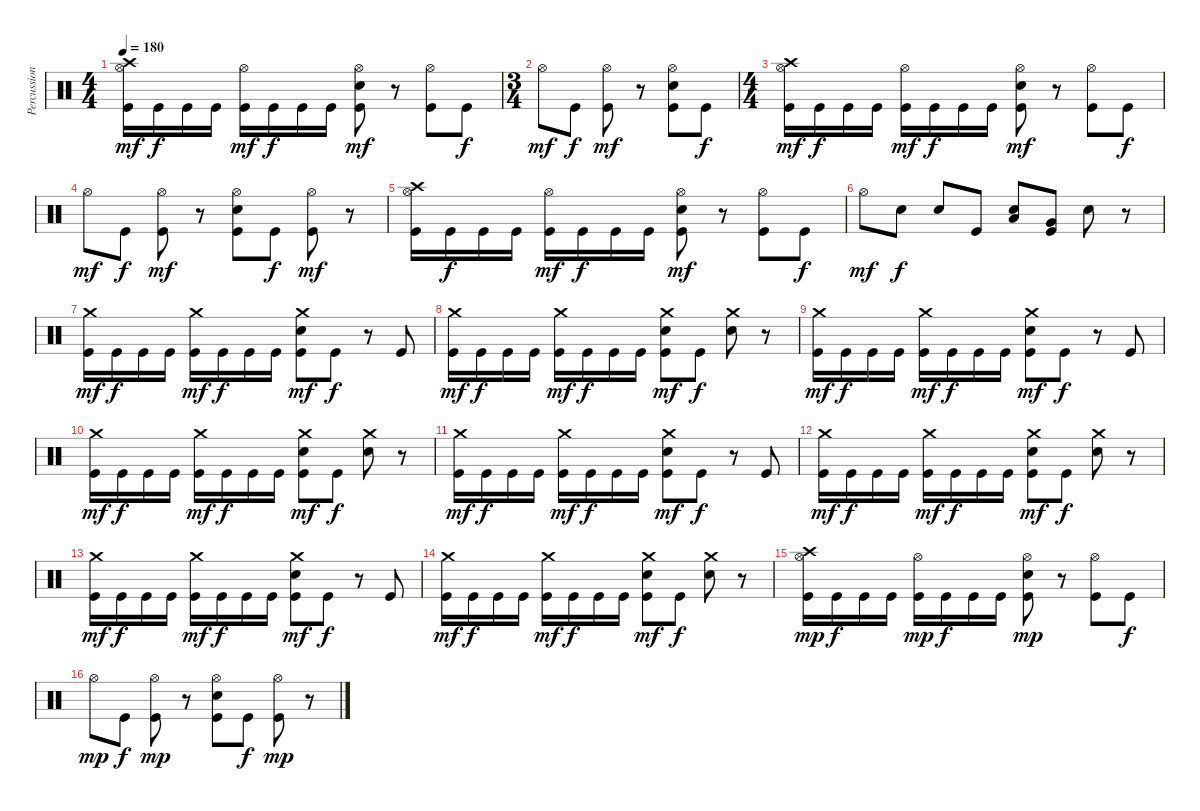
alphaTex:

\track ("Percussion" "Percussion") {instrument percussion}
\staff {score}
\articulation defaults
\ts (4 4)
\tempo 180
\clef neutral
\ks c
("Crash high (hit)" "Hi-Hat (open)" "Kick (hit)").16{dy mf} "Kick (hit)".16{dy f} "Kick (hit)".16 "Kick (hit)".16 ("Hi-Hat (open)" "Kick (hit)").16{dy mf} "Kick (hit)".16{dy f} "Kick (hit)".16 "Kick (hit)".16 ("Hi-Hat (open)" "Snare (hit) 2" "Kick (hit)").8{dy mf} r.8 ("Hi-Hat (open)" "Kick (hit)").8 "Kick (hit)".8{dy f} |
\ts (3 4)
"Hi-Hat (open)".8{dy mf} "Kick (hit)".8{dy f} ("Hi-Hat (open)" "Kick (hit)").8{dy mf} r.8 ("Hi-Hat (open)" "Snare (hit) 2" "Kick (hit)").8 "Kick (hit)".8{dy f} |
\ts (4 4)
("Crash high (hit)" "Hi-Hat (open)" "Kick (hit)").16{dy mf} "Kick (hit)".16{dy f} "Kick (hit)".16 "Kick (hit)".16 ("Hi-Hat (open)" "Kick (hit)").16{dy mf} "Kick (hit)".16{dy f} "Kick (hit)".16 "Kick (hit)".16 ("Hi-Hat (open)" "Snare (hit) 2" "Kick (hit)").8{dy mf} r.8 ("Hi-Hat (open)" "Kick (hit)").8 "Kick (hit)".8{dy f} |
"Hi-Hat (open)".8{dy mf} "Kick (hit)".8{dy f} ("Hi-Hat (open)" "Kick (hit)").8{dy mf} r.8 ("Hi-Hat (open)" "Snare (hit) 2" "Kick (hit)").8 "Kick (hit)".8{dy f} ("Hi-Hat (open)" "Kick (hit)").8{dy mf} r.8 |
("Crash high (hit)" "Hi-Hat (open)" "Kick (hit)").16 "Kick (hit)".16{dy f} "Kick (hit)".16 "Kick (hit)".16 ("Hi-Hat (open)" "Kick (hit)").16{dy mf} "Kick (hit)".16{dy f} "Kick (hit)".16 "Kick (hit)".16 ("Hi-Hat (open)" "Snare (hit) 2" "Kick (hit)").8{dy mf} r.8 ("Hi-Hat (open)" "Kick (hit)").8 "Kick (hit)".8{dy f} |
"Hi-Hat (open)".8{dy mf} "Snare (hit) 2".8{dy f} "Snare (hit) 2".8 "Kick (hit)".8 ("Low Tom (hit)" "Snare (hit) 2").8 ("Very Low Tom (hit)" "Kick (hit)").8 "Snare (hit) 2".8 r.8 |
("Crash medium (hit)" "Kick (hit)").16{dy mf} "Kick (hit)".16{dy f} "Kick (hit)".16 "Kick (hit)".16 ("Crash medium (hit)" "Kick (hit)").16{dy mf} "Kick (hit)".16{dy f} "Kick (hit)".16 "Kick (hit)".16 ("Crash medium (hit)" "Snare (hit) 2" "Kick (hit)").8{dy mf} "Kick (hit)".8{dy f} r.8 "Kick (hit)".8 |
("Crash medium (hit)" "Kick (hit)").16{dy mf} "Kick (hit)".16{dy f} "Kick (hit)".16 "Kick (hit)".16 ("Crash medium (hit)" "Kick (hit)").16{dy mf} "Kick (hit)".16{dy f} "Kick (hit)".16 "Kick (hit)".16 ("Crash medium (hit)" "Snare (hit) 2" "Kick (hit)").8{dy mf} "Kick (hit)".8{dy f} ("Crash medium (hit)" "Snare (hit) 2").8 r.8 |
("Crash medium (hit)" "Kick (hit)").16{dy mf} "Kick (hit)".16{dy f} "Kick (hit)".16 "Kick (hit)".16 ("Crash medium (hit)" "Kick (hit)").16{dy mf} "Kick (hit)".16{dy f} "Kick (hit)".16 "Kick (hit)".16 ("Crash medium (hit)" "Snare (hit) 2" "Kick (hit)").8{dy mf} "Kick (hit)".8{dy f} r.8 "Kick (hit)".8 |
("Crash medium (hit)" "Kick (hit)").16{dy mf} "Kick (hit)".16{dy f} "Kick (hit)".16 "Kick (hit)".16 ("Crash medium (hit)" "Kick (hit)").16{dy mf} "Kick (hit)".16{dy f} "Kick (hit)".16 "Kick (hit)".16 ("Crash medium (hit)" "Snare (hit) 2" "Kick (hit)").8{dy mf} "Kick (hit)".8{dy f} ("Crash medium (hit)" "Snare (hit) 2").8 r.8 |
("Crash medium (hit)" "Kick (hit)").16{dy mf} "Kick (hit)".16{dy f} "Kick (hit)".16 "Kick (hit)".16 ("Crash medium (hit)" "Kick (hit)").16{dy mf} "Kick (hit)".16{dy f} "Kick (hit)".16 "Kick (hit)".16 ("Crash medium (hit)" "Snare (hit) 2" "Kick (hit)").8{dy mf} "Kick (hit)".8{dy f} r.8 "Kick (hit)".8 |
("Crash medium (hit)" "Kick (hit)").16{dy mf} "Kick (hit)".16{dy f} "Kick (hit)".16 "Kick (hit)".16 ("Crash medium (hit)" "Kick (hit)").16{dy mf} "Kick (hit)".16{dy f} "Kick (hit)".16 "Kick (hit)".16 ("Crash medium (hit)" "Snare (hit) 2" "Kick (hit)").8{dy mf} "Kick (hit)".8{dy f} ("Crash medium (hit)" "Snare (hit) 2").8 r.8 |
("Crash medium (hit)" "Kick (hit)").16{dy mf} "Kick (hit)".16{dy f} "Kick (hit)".16 "Kick (hit)".16 ("Crash medium (hit)" "Kick (hit)").16{dy mf} "Kick (hit)".16{dy f} "Kick (hit)".16 "Kick (hit)".16 ("Crash medium (hit)" "Snare (hit) 2" "Kick (hit)").8{dy mf} "Kick (hit)".8{dy f} r.8 "Kick (hit)".8 |
("Crash medium (hit)" "Kick (hit)").16{dy mf} "Kick (hit)".16{dy f} "Kick (hit)".16 "Kick (hit)".16 ("Crash medium (hit)" "Kick (hit)").16{dy mf} "Kick (hit)".16{dy f} "Kick (hit)".16 "Kick (hit)".16 ("Crash medium (hit)" "Snare (hit) 2" "Kick (hit)").8{dy mf} "Kick (hit)".8{dy f} ("Crash medium (hit)" "Snare (hit) 2").8 r.8 |
("Crash high (hit)" "Hi-Hat (open)" "Kick (hit)").16{dy mp} "Kick (hit)".16{dy f} "Kick (hit)".16 "Kick (hit)".16 ("Hi-Hat (open)" "Kick (hit)").16{dy mp} "Kick (hit)".16{dy f} "Kick (hit)".16 "Kick (hit)".16 ("Hi-Hat (open)" "Snare (hit) 2" "Kick (hit)").8{dy mp} r.8 ("Hi-Hat (open)" "Kick (hit)").8 "Kick (hit)".8{dy f} |
"Hi-Hat (open)".8{dy mp} "Kick (hit)".8{dy f} ("Hi-Hat (open)" "Kick (hit)").8{dy mp} r.8 ("Hi-Hat (open)" "Snare (hit) 2" "Kick (hit)").8 "Kick (hit)".8{dy f} ("Hi-Hat (open)" "Kick (hit)").8{dy mp} r.8
